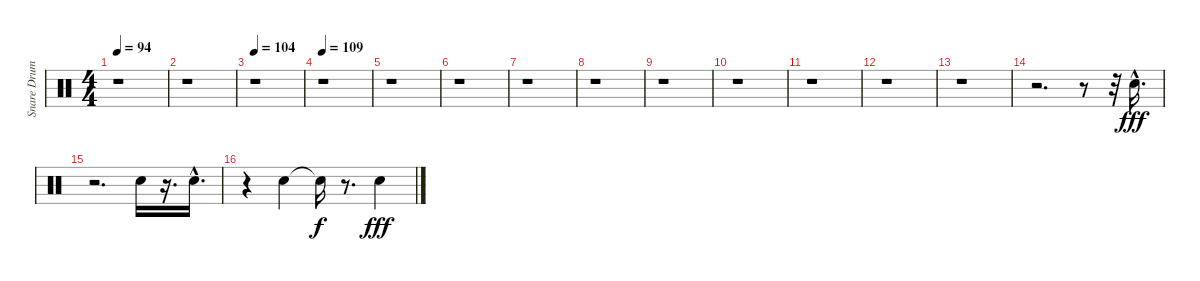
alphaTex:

\track ("Snare Drum      " "Snare Drum") {instrument percussion}
\staff {score}
\articulation defaults
\ts (4 4)
\tempo 94
\clef neutral
\ks c
r.1{dy fff} |
r.1 |
\tempo 104
r.1 |
\tempo 109
r.1 |
r.1 |
r.1 |
r.1 |
r.1 |
r.1 |
r.1 |
r.1 |
r.1 |
r.1 |
r.2{d} r.8 r.32 "Electric Snare (hit)"{hac}.16{d} |
r.2{d} "Electric Snare (hit)".16 r.16{d} "Electric Snare (hit)"{hac}.16{d} |
r.4 "Electric Snare (hit)".4 "Snare (hit)"{t}.16{dy f} r.8{d} "Electric Snare (hit)".4{dy fff}
